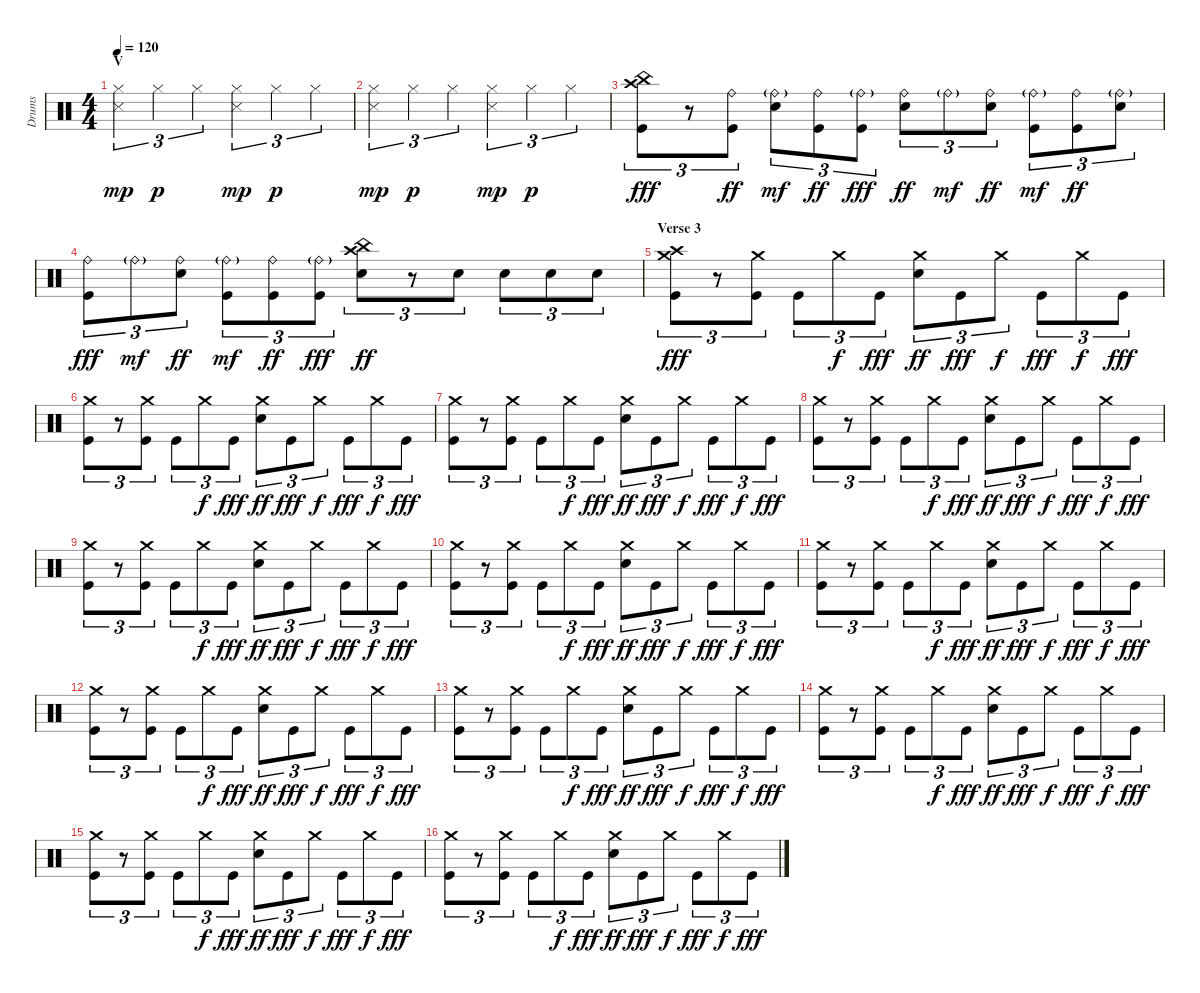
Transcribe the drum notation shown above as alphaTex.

\track ("Drums" "Drums") {instrument percussion}
\staff {score}
\articulation defaults
\ts (4 4)
\section ("" "V")
\tempo 120
\clef neutral
\ks c
("Hi-Hat (closed)" "Snare (side stick) 3").4{tu (3 2) dy mp} "Hi-Hat (closed)".4{tu (3 2) dy p} "Hi-Hat (closed)".4{tu (3 2)} ("Hi-Hat (closed)" "Snare (side stick) 3").4{tu (3 2) dy mp} "Hi-Hat (closed)".4{tu (3 2) dy p} "Hi-Hat (closed)".4{tu (3 2)} |
("Hi-Hat (closed)" "Snare (side stick) 3").4{tu (3 2) dy mp} "Hi-Hat (closed)".4{tu (3 2) dy p} "Hi-Hat (closed)".4{tu (3 2)} ("Hi-Hat (closed)" "Snare (side stick) 3").4{tu (3 2) dy mp} "Hi-Hat (closed)".4{tu (3 2) dy p} "Hi-Hat (closed)".4{tu (3 2) volume 5} |
("China (hit)" "Crash high (hit)" "Kick (hit)").8{tu (3 2) dy fff volume 16} r.8{tu (3 2)} ("Ride (bell)" "Kick (hit)").8{tu (3 2) dy ff} ("Ride (bell)"{g} "Snare (hit) 2").8{tu (3 2) dy mf} ("Ride (bell)" "Kick (hit)").8{tu (3 2) dy ff} ("Ride (bell)"{g} "Kick (hit)").8{tu (3 2) dy fff} ("Ride (bell)" "Snare (hit) 2").8{tu (3 2) dy ff} "Ride (bell)"{g}.8{tu (3 2) dy mf} ("Ride (bell)" "Snare (hit) 2").8{tu (3 2) dy ff} ("Ride (bell)"{g} "Kick (hit)").8{tu (3 2) dy mf} ("Ride (bell)" "Kick (hit)").8{tu (3 2) dy ff} ("Ride (bell)"{g} "Snare (hit) 2").8{tu (3 2)} |
("Ride (bell)" "Kick (hit)").8{tu (3 2) dy fff} "Ride (bell)"{g}.8{tu (3 2) dy mf} ("Ride (bell)" "Snare (hit) 2").8{tu (3 2) dy ff} ("Ride (bell)"{g} "Kick (hit)").8{tu (3 2) dy mf} ("Ride (bell)" "Kick (hit)").8{tu (3 2) dy ff} ("Ride (bell)"{g} "Kick (hit)").8{tu (3 2) dy fff} ("Crash high (hit)" "China (hit)" "Snare (hit) 2").8{tu (3 2) dy ff} r.8{tu (3 2)} "Snare (hit) 2".8{tu (3 2)} "Snare (hit) 2".8{tu (3 2)} "Snare (hit) 2".8{tu (3 2)} "Snare (hit) 2".8{tu (3 2)} |
\section ("" "Verse 3")
("Crash high (hit)" "Crash medium (hit)" "Kick (hit)").8{tu (3 2) dy fff} r.8{tu (3 2)} ("Crash medium (hit)" "Kick (hit)").8{tu (3 2)} "Kick (hit)".8{tu (3 2)} "Crash medium (hit)".8{tu (3 2) dy f} "Kick (hit)".8{tu (3 2) dy fff} ("Crash medium (hit)" "Snare (hit) 2").8{tu (3 2) dy ff} "Kick (hit)".8{tu (3 2) dy fff} "Crash medium (hit)".8{tu (3 2) dy f} "Kick (hit)".8{tu (3 2) dy fff} "Crash medium (hit)".8{tu (3 2) dy f} "Kick (hit)".8{tu (3 2) dy fff} |
("Crash medium (hit)" "Kick (hit)").8{tu (3 2)} r.8{tu (3 2)} ("Crash medium (hit)" "Kick (hit)").8{tu (3 2)} "Kick (hit)".8{tu (3 2)} "Crash medium (hit)".8{tu (3 2) dy f} "Kick (hit)".8{tu (3 2) dy fff} ("Crash medium (hit)" "Snare (hit) 2").8{tu (3 2) dy ff} "Kick (hit)".8{tu (3 2) dy fff} "Crash medium (hit)".8{tu (3 2) dy f} "Kick (hit)".8{tu (3 2) dy fff} "Crash medium (hit)".8{tu (3 2) dy f} "Kick (hit)".8{tu (3 2) dy fff} |
("Crash medium (hit)" "Kick (hit)").8{tu (3 2)} r.8{tu (3 2)} ("Crash medium (hit)" "Kick (hit)").8{tu (3 2)} "Kick (hit)".8{tu (3 2)} "Crash medium (hit)".8{tu (3 2) dy f} "Kick (hit)".8{tu (3 2) dy fff} ("Crash medium (hit)" "Snare (hit) 2").8{tu (3 2) dy ff} "Kick (hit)".8{tu (3 2) dy fff} "Crash medium (hit)".8{tu (3 2) dy f} "Kick (hit)".8{tu (3 2) dy fff} "Crash medium (hit)".8{tu (3 2) dy f} "Kick (hit)".8{tu (3 2) dy fff} |
("Crash medium (hit)" "Kick (hit)").8{tu (3 2)} r.8{tu (3 2)} ("Crash medium (hit)" "Kick (hit)").8{tu (3 2)} "Kick (hit)".8{tu (3 2)} "Crash medium (hit)".8{tu (3 2) dy f} "Kick (hit)".8{tu (3 2) dy fff} ("Crash medium (hit)" "Snare (hit) 2").8{tu (3 2) dy ff} "Kick (hit)".8{tu (3 2) dy fff} "Crash medium (hit)".8{tu (3 2) dy f} "Kick (hit)".8{tu (3 2) dy fff} "Crash medium (hit)".8{tu (3 2) dy f} "Kick (hit)".8{tu (3 2) dy fff} |
("Crash medium (hit)" "Kick (hit)").8{tu (3 2)} r.8{tu (3 2)} ("Crash medium (hit)" "Kick (hit)").8{tu (3 2)} "Kick (hit)".8{tu (3 2)} "Crash medium (hit)".8{tu (3 2) dy f} "Kick (hit)".8{tu (3 2) dy fff} ("Crash medium (hit)" "Snare (hit) 2").8{tu (3 2) dy ff} "Kick (hit)".8{tu (3 2) dy fff} "Crash medium (hit)".8{tu (3 2) dy f} "Kick (hit)".8{tu (3 2) dy fff} "Crash medium (hit)".8{tu (3 2) dy f} "Kick (hit)".8{tu (3 2) dy fff} |
("Crash medium (hit)" "Kick (hit)").8{tu (3 2)} r.8{tu (3 2)} ("Crash medium (hit)" "Kick (hit)").8{tu (3 2)} "Kick (hit)".8{tu (3 2)} "Crash medium (hit)".8{tu (3 2) dy f} "Kick (hit)".8{tu (3 2) dy fff} ("Crash medium (hit)" "Snare (hit) 2").8{tu (3 2) dy ff} "Kick (hit)".8{tu (3 2) dy fff} "Crash medium (hit)".8{tu (3 2) dy f} "Kick (hit)".8{tu (3 2) dy fff} "Crash medium (hit)".8{tu (3 2) dy f} "Kick (hit)".8{tu (3 2) dy fff} |
("Crash medium (hit)" "Kick (hit)").8{tu (3 2)} r.8{tu (3 2)} ("Crash medium (hit)" "Kick (hit)").8{tu (3 2)} "Kick (hit)".8{tu (3 2)} "Crash medium (hit)".8{tu (3 2) dy f} "Kick (hit)".8{tu (3 2) dy fff} ("Crash medium (hit)" "Snare (hit) 2").8{tu (3 2) dy ff} "Kick (hit)".8{tu (3 2) dy fff} "Crash medium (hit)".8{tu (3 2) dy f} "Kick (hit)".8{tu (3 2) dy fff} "Crash medium (hit)".8{tu (3 2) dy f} "Kick (hit)".8{tu (3 2) dy fff} |
("Crash medium (hit)" "Kick (hit)").8{tu (3 2)} r.8{tu (3 2)} ("Crash medium (hit)" "Kick (hit)").8{tu (3 2)} "Kick (hit)".8{tu (3 2)} "Crash medium (hit)".8{tu (3 2) dy f} "Kick (hit)".8{tu (3 2) dy fff} ("Crash medium (hit)" "Snare (hit) 2").8{tu (3 2) dy ff} "Kick (hit)".8{tu (3 2) dy fff} "Crash medium (hit)".8{tu (3 2) dy f} "Kick (hit)".8{tu (3 2) dy fff} "Crash medium (hit)".8{tu (3 2) dy f} "Kick (hit)".8{tu (3 2) dy fff} |
("Crash medium (hit)" "Kick (hit)").8{tu (3 2)} r.8{tu (3 2)} ("Crash medium (hit)" "Kick (hit)").8{tu (3 2)} "Kick (hit)".8{tu (3 2)} "Crash medium (hit)".8{tu (3 2) dy f} "Kick (hit)".8{tu (3 2) dy fff} ("Crash medium (hit)" "Snare (hit) 2").8{tu (3 2) dy ff} "Kick (hit)".8{tu (3 2) dy fff} "Crash medium (hit)".8{tu (3 2) dy f} "Kick (hit)".8{tu (3 2) dy fff} "Crash medium (hit)".8{tu (3 2) dy f} "Kick (hit)".8{tu (3 2) dy fff} |
("Crash medium (hit)" "Kick (hit)").8{tu (3 2)} r.8{tu (3 2)} ("Crash medium (hit)" "Kick (hit)").8{tu (3 2)} "Kick (hit)".8{tu (3 2)} "Crash medium (hit)".8{tu (3 2) dy f} "Kick (hit)".8{tu (3 2) dy fff} ("Crash medium (hit)" "Snare (hit) 2").8{tu (3 2) dy ff} "Kick (hit)".8{tu (3 2) dy fff} "Crash medium (hit)".8{tu (3 2) dy f} "Kick (hit)".8{tu (3 2) dy fff} "Crash medium (hit)".8{tu (3 2) dy f} "Kick (hit)".8{tu (3 2) dy fff} |
("Crash medium (hit)" "Kick (hit)").8{tu (3 2)} r.8{tu (3 2)} ("Crash medium (hit)" "Kick (hit)").8{tu (3 2)} "Kick (hit)".8{tu (3 2)} "Crash medium (hit)".8{tu (3 2) dy f} "Kick (hit)".8{tu (3 2) dy fff} ("Crash medium (hit)" "Snare (hit) 2").8{tu (3 2) dy ff} "Kick (hit)".8{tu (3 2) dy fff} "Crash medium (hit)".8{tu (3 2) dy f} "Kick (hit)".8{tu (3 2) dy fff} "Crash medium (hit)".8{tu (3 2) dy f} "Kick (hit)".8{tu (3 2) dy fff} |
("Crash medium (hit)" "Kick (hit)").8{tu (3 2)} r.8{tu (3 2)} ("Crash medium (hit)" "Kick (hit)").8{tu (3 2)} "Kick (hit)".8{tu (3 2)} "Crash medium (hit)".8{tu (3 2) dy f} "Kick (hit)".8{tu (3 2) dy fff} ("Crash medium (hit)" "Snare (hit) 2").8{tu (3 2) dy ff} "Kick (hit)".8{tu (3 2) dy fff} "Crash medium (hit)".8{tu (3 2) dy f} "Kick (hit)".8{tu (3 2) dy fff} "Crash medium (hit)".8{tu (3 2) dy f} "Kick (hit)".8{tu (3 2) dy fff}
